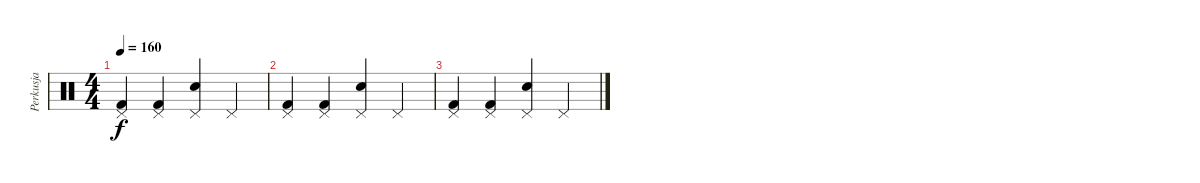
\track ("Perkusja" "Perkusja") {instrument percussion}
\staff {score}
\articulation defaults
\ts (4 4)
\tempo 160
\clef neutral
\ks c
("Pedal Hi-Hat (hit)" "Kick (hit) 2").4{dy f} ("Pedal Hi-Hat (hit)" "Kick (hit) 2").4 ("Pedal Hi-Hat (hit)" "Snare (hit) 2").4 "Pedal Hi-Hat (hit)".4 |
("Pedal Hi-Hat (hit)" "Kick (hit) 2").4 ("Pedal Hi-Hat (hit)" "Kick (hit) 2").4 ("Pedal Hi-Hat (hit)" "Snare (hit) 2").4 "Pedal Hi-Hat (hit)".4 |
("Pedal Hi-Hat (hit)" "Kick (hit) 2").4 ("Pedal Hi-Hat (hit)" "Kick (hit) 2").4 ("Pedal Hi-Hat (hit)" "Snare (hit) 2").4 "Pedal Hi-Hat (hit)".4
